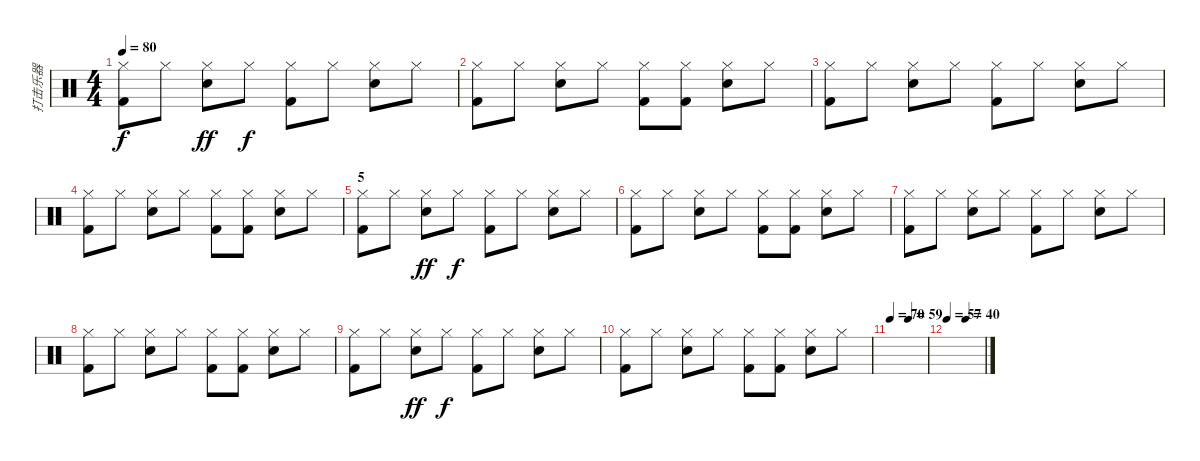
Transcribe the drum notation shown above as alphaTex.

\track ("打击乐器" "打击乐器") {instrument percussion}
\staff {score}
\articulation defaults
\ts (4 4)
\tempo 80
\clef neutral
\ks c
("Hi-Hat (closed)" "Kick (hit) 2").8{dy f} "Hi-Hat (closed)".8 ("Hi-Hat (closed)" "Snare (hit) 2").8{dy ff} "Hi-Hat (closed)".8{dy f} ("Hi-Hat (closed)" "Kick (hit) 2").8 "Hi-Hat (closed)".8 ("Hi-Hat (closed)" "Snare (hit) 2").8 "Hi-Hat (closed)".8 |
("Hi-Hat (closed)" "Kick (hit) 2").8 "Hi-Hat (closed)".8 ("Hi-Hat (closed)" "Snare (hit) 2").8 "Hi-Hat (closed)".8 ("Hi-Hat (closed)" "Kick (hit) 2").8 ("Hi-Hat (closed)" "Kick (hit) 2").8 ("Hi-Hat (closed)" "Snare (hit) 2").8 "Hi-Hat (closed)".8 |
("Hi-Hat (closed)" "Kick (hit) 2").8 "Hi-Hat (closed)".8 ("Hi-Hat (closed)" "Snare (hit) 2").8 "Hi-Hat (closed)".8 ("Hi-Hat (closed)" "Kick (hit) 2").8 "Hi-Hat (closed)".8 ("Hi-Hat (closed)" "Snare (hit) 2").8 "Hi-Hat (closed)".8 |
("Hi-Hat (closed)" "Kick (hit) 2").8 "Hi-Hat (closed)".8 ("Hi-Hat (closed)" "Snare (hit) 2").8 "Hi-Hat (closed)".8 ("Hi-Hat (closed)" "Kick (hit) 2").8 ("Hi-Hat (closed)" "Kick (hit) 2").8 ("Hi-Hat (closed)" "Snare (hit) 2").8 "Hi-Hat (closed)".8 |
\section ("" "5")
("Hi-Hat (closed)" "Kick (hit) 2").8 "Hi-Hat (closed)".8 ("Hi-Hat (closed)" "Snare (hit) 2").8{dy ff} "Hi-Hat (closed)".8{dy f} ("Hi-Hat (closed)" "Kick (hit) 2").8 "Hi-Hat (closed)".8 ("Hi-Hat (closed)" "Snare (hit) 2").8 "Hi-Hat (closed)".8 |
("Hi-Hat (closed)" "Kick (hit) 2").8 "Hi-Hat (closed)".8 ("Hi-Hat (closed)" "Snare (hit) 2").8 "Hi-Hat (closed)".8 ("Hi-Hat (closed)" "Kick (hit) 2").8 ("Hi-Hat (closed)" "Kick (hit) 2").8 ("Hi-Hat (closed)" "Snare (hit) 2").8 "Hi-Hat (closed)".8 |
("Hi-Hat (closed)" "Kick (hit) 2").8 "Hi-Hat (closed)".8 ("Hi-Hat (closed)" "Snare (hit) 2").8 "Hi-Hat (closed)".8 ("Hi-Hat (closed)" "Kick (hit) 2").8 "Hi-Hat (closed)".8 ("Hi-Hat (closed)" "Snare (hit) 2").8 "Hi-Hat (closed)".8 |
("Hi-Hat (closed)" "Kick (hit) 2").8 "Hi-Hat (closed)".8 ("Hi-Hat (closed)" "Snare (hit) 2").8 "Hi-Hat (closed)".8 ("Hi-Hat (closed)" "Kick (hit) 2").8 ("Hi-Hat (closed)" "Kick (hit) 2").8 ("Hi-Hat (closed)" "Snare (hit) 2").8 "Hi-Hat (closed)".8 |
("Hi-Hat (closed)" "Kick (hit) 2").8 "Hi-Hat (closed)".8 ("Hi-Hat (closed)" "Snare (hit) 2").8{dy ff} "Hi-Hat (closed)".8{dy f} ("Hi-Hat (closed)" "Kick (hit) 2").8 "Hi-Hat (closed)".8 ("Hi-Hat (closed)" "Snare (hit) 2").8 "Hi-Hat (closed)".8 |
("Hi-Hat (closed)" "Kick (hit) 2").8 "Hi-Hat (closed)".8 ("Hi-Hat (closed)" "Snare (hit) 2").8 "Hi-Hat (closed)".8 ("Hi-Hat (closed)" "Kick (hit) 2").8 ("Hi-Hat (closed)" "Kick (hit) 2").8 ("Hi-Hat (closed)" "Snare (hit) 2").8 "Hi-Hat (closed)".8 |
\tempo 70
\tempo (59 0.5)
|
\tempo 57
\tempo (40 0.5)
